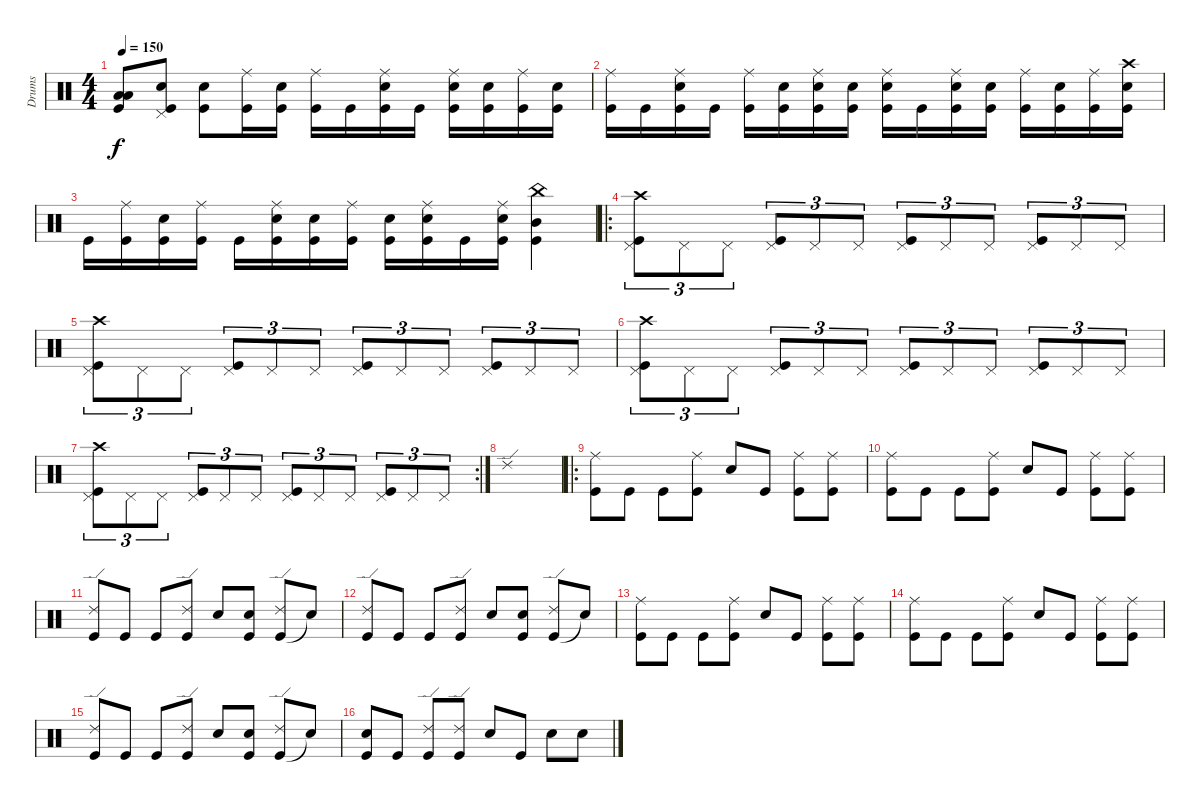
\track ("Drums" "Drums") {instrument percussion}
\staff {score}
\articulation defaults
\ts (4 4)
\tempo 150
\clef neutral
\ks c
("Kick (hit)" "Low Tom (hit)" "Low Floor Tom (hit)").8{dy f} ("Kick (hit)" "Snare (hit) 2" "Pedal Hi-Hat (hit)").8 ("Kick (hit)" "Snare (hit) 2").8 ("Kick (hit)" "Ride (middle)").16 ("Kick (hit)" "Snare (hit) 2").16 ("Kick (hit)" "Ride (middle)").16 "Kick (hit)".16 ("Kick (hit)" "Snare (hit) 2" "Ride (middle)").16 "Kick (hit)".16 ("Kick (hit)" "Snare (hit) 2" "Ride (middle)").16 ("Kick (hit)" "Snare (hit) 2").16 ("Kick (hit)" "Ride (middle)").16 ("Kick (hit)" "Snare (hit) 2").16 |
("Kick (hit)" "Ride (middle)").16 "Kick (hit)".16 ("Kick (hit)" "Snare (hit) 2" "Ride (middle)").16 "Kick (hit)".16 ("Kick (hit)" "Ride (middle)").16 ("Kick (hit)" "Snare (hit) 2").16 ("Kick (hit)" "Snare (hit) 2" "Ride (middle)").16 ("Kick (hit)" "Snare (hit) 2").16 ("Kick (hit)" "Snare (hit) 2" "Ride (middle)").16 "Kick (hit)".16 ("Kick (hit)" "Snare (hit) 2" "Ride (middle)").16 ("Kick (hit)" "Snare (hit) 2").16 ("Kick (hit)" "Ride (middle)").16 ("Kick (hit)" "Snare (hit) 2").16 ("Kick (hit)" "Ride (middle)").16 ("Kick (hit)" "Snare (hit) 2" "Crash high (hit)").16 |
"Kick (hit)".16 ("Kick (hit)" "Ride (middle)").16 ("Kick (hit)" "Snare (hit) 2").16 ("Kick (hit)" "Ride (middle)").16 "Kick (hit)".16 ("Kick (hit)" "Snare (hit) 2" "Ride (middle)").16 ("Kick (hit)" "Snare (hit) 2").16 ("Kick (hit)" "Ride (middle)").16 ("Kick (hit)" "Snare (hit) 2").16 ("Kick (hit)" "Snare (hit) 2" "Ride (middle)").16 "Kick (hit)".16 ("Kick (hit)" "Snare (hit) 2" "Ride (middle)").16 ("Kick (hit)" "Mid Tom (hit)" "China (hit)").4 |
\ro
("Kick (hit)" "Pedal Hi-Hat (hit)" "Crash high (hit)").8{tu (3 2)} "Pedal Hi-Hat (hit)".8{tu (3 2)} "Pedal Hi-Hat (hit)".8{tu (3 2)} ("Kick (hit)" "Pedal Hi-Hat (hit)").8{tu (3 2)} "Pedal Hi-Hat (hit)".8{tu (3 2)} "Pedal Hi-Hat (hit)".8{tu (3 2)} ("Kick (hit)" "Pedal Hi-Hat (hit)").8{tu (3 2)} "Pedal Hi-Hat (hit)".8{tu (3 2)} "Pedal Hi-Hat (hit)".8{tu (3 2)} ("Kick (hit)" "Pedal Hi-Hat (hit)").8{tu (3 2)} "Pedal Hi-Hat (hit)".8{tu (3 2)} "Pedal Hi-Hat (hit)".8{tu (3 2)} |
("Kick (hit)" "Pedal Hi-Hat (hit)" "Crash high (hit)").8{tu (3 2)} "Pedal Hi-Hat (hit)".8{tu (3 2)} "Pedal Hi-Hat (hit)".8{tu (3 2)} ("Kick (hit)" "Pedal Hi-Hat (hit)").8{tu (3 2)} "Pedal Hi-Hat (hit)".8{tu (3 2)} "Pedal Hi-Hat (hit)".8{tu (3 2)} ("Kick (hit)" "Pedal Hi-Hat (hit)").8{tu (3 2)} "Pedal Hi-Hat (hit)".8{tu (3 2)} "Pedal Hi-Hat (hit)".8{tu (3 2)} ("Kick (hit)" "Pedal Hi-Hat (hit)").8{tu (3 2)} "Pedal Hi-Hat (hit)".8{tu (3 2)} "Pedal Hi-Hat (hit)".8{tu (3 2)} |
("Kick (hit)" "Pedal Hi-Hat (hit)" "Crash high (hit)").8{tu (3 2)} "Pedal Hi-Hat (hit)".8{tu (3 2)} "Pedal Hi-Hat (hit)".8{tu (3 2)} ("Kick (hit)" "Pedal Hi-Hat (hit)").8{tu (3 2)} "Pedal Hi-Hat (hit)".8{tu (3 2)} "Pedal Hi-Hat (hit)".8{tu (3 2)} ("Kick (hit)" "Pedal Hi-Hat (hit)").8{tu (3 2)} "Pedal Hi-Hat (hit)".8{tu (3 2)} "Pedal Hi-Hat (hit)".8{tu (3 2)} ("Kick (hit)" "Pedal Hi-Hat (hit)").8{tu (3 2)} "Pedal Hi-Hat (hit)".8{tu (3 2)} "Pedal Hi-Hat (hit)".8{tu (3 2)} |
\rc 2
("Kick (hit)" "Pedal Hi-Hat (hit)" "Crash high (hit)").8{tu (3 2)} "Pedal Hi-Hat (hit)".8{tu (3 2)} "Pedal Hi-Hat (hit)".8{tu (3 2)} ("Kick (hit)" "Pedal Hi-Hat (hit)").8{tu (3 2)} "Pedal Hi-Hat (hit)".8{tu (3 2)} "Pedal Hi-Hat (hit)".8{tu (3 2)} ("Kick (hit)" "Pedal Hi-Hat (hit)").8{tu (3 2)} "Pedal Hi-Hat (hit)".8{tu (3 2)} "Pedal Hi-Hat (hit)".8{tu (3 2)} ("Kick (hit)" "Pedal Hi-Hat (hit)").8{tu (3 2)} "Pedal Hi-Hat (hit)".8{tu (3 2)} "Pedal Hi-Hat (hit)".8{tu (3 2)} |
"Ride (edge) 2".1 |
\ro
("Kick (hit)" "Ride (middle)").8 "Kick (hit)".8 "Kick (hit)".8 ("Kick (hit)" "Ride (middle)").8 "Snare (hit) 2".8 "Kick (hit)".8 ("Kick (hit)" "Ride (middle)").8 ("Kick (hit)" "Ride (middle)").8 |
("Kick (hit)" "Ride (middle)").8 "Kick (hit)".8 "Kick (hit)".8 ("Kick (hit)" "Ride (middle)").8 "Snare (hit) 2".8 "Kick (hit)".8 ("Kick (hit)" "Ride (middle)").8 ("Kick (hit)" "Ride (middle)").8 |
("Kick (hit)" "Ride (edge) 2").8 "Kick (hit)".8 "Kick (hit)".8 ("Kick (hit)" "Ride (edge) 2").8 "Snare (hit) 2".8 ("Kick (hit)" "Snare (hit) 2").8 ("Kick (hit)" "Ride (edge) 2").8 "Snare (hit)"{t}.8 |
("Kick (hit)" "Ride (edge) 2").8 "Kick (hit)".8 "Kick (hit)".8 ("Kick (hit)" "Ride (edge) 2").8 "Snare (hit) 2".8 ("Kick (hit)" "Snare (hit) 2").8 ("Kick (hit)" "Ride (edge) 2").8 "Snare (hit)"{t}.8 |
("Kick (hit)" "Ride (middle)").8 "Kick (hit)".8 "Kick (hit)".8 ("Kick (hit)" "Ride (middle)").8 "Snare (hit) 2".8 "Kick (hit)".8 ("Kick (hit)" "Ride (middle)").8 ("Kick (hit)" "Ride (middle)").8 |
("Kick (hit)" "Ride (middle)").8 "Kick (hit)".8 "Kick (hit)".8 ("Kick (hit)" "Ride (middle)").8 "Snare (hit) 2".8 "Kick (hit)".8 ("Kick (hit)" "Ride (middle)").8 ("Kick (hit)" "Ride (middle)").8 |
("Kick (hit)" "Ride (edge) 2").8 "Kick (hit)".8 "Kick (hit)".8 ("Kick (hit)" "Ride (edge) 2").8 "Snare (hit) 2".8 ("Kick (hit)" "Snare (hit) 2").8 ("Kick (hit)" "Ride (edge) 2").8 "Snare (hit)"{t}.8 |
("Kick (hit)" "Snare (hit) 2").8 "Kick (hit)".8 ("Kick (hit)" "Ride (edge) 2").8 ("Kick (hit)" "Ride (edge) 2").8 "Snare (hit) 2".8 "Kick (hit)".8 "Snare (hit) 2".8 "Snare (hit) 2".8
